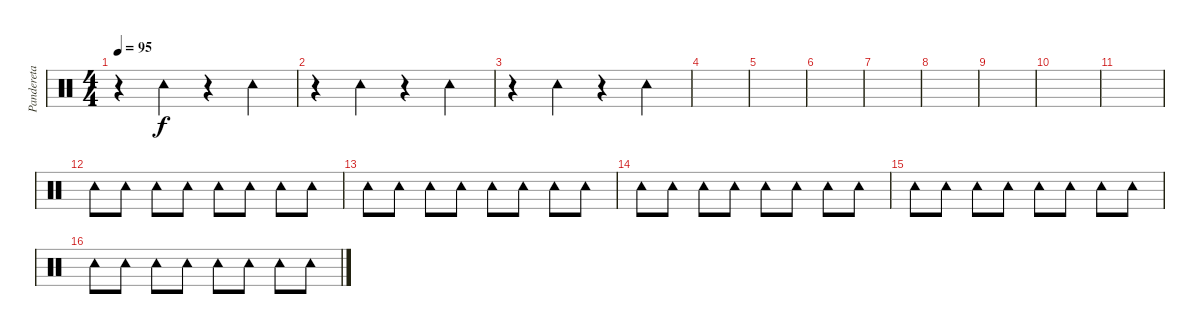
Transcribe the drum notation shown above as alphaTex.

\track ("Pandereta" "Pandereta") {instrument percussion}
\staff {score}
\articulation defaults
\ts (4 4)
\tempo 95
\clef neutral
\ks c
r.4{dy f} "Tambourine (hit)".4 r.4 "Tambourine (hit)".4 |
r.4 "Tambourine (hit)".4 r.4 "Tambourine (hit)".4 |
r.4 "Tambourine (hit)".4 r.4 "Tambourine (hit)".4 |
|
|
|
|
|
|
|
|
"Tambourine (hit)".8 "Tambourine (hit)".8 "Tambourine (hit)".8 "Tambourine (hit)".8 "Tambourine (hit)".8 "Tambourine (hit)".8 "Tambourine (hit)".8 "Tambourine (hit)".8 |
"Tambourine (hit)".8 "Tambourine (hit)".8 "Tambourine (hit)".8 "Tambourine (hit)".8 "Tambourine (hit)".8 "Tambourine (hit)".8 "Tambourine (hit)".8 "Tambourine (hit)".8 |
"Tambourine (hit)".8 "Tambourine (hit)".8 "Tambourine (hit)".8 "Tambourine (hit)".8 "Tambourine (hit)".8 "Tambourine (hit)".8 "Tambourine (hit)".8 "Tambourine (hit)".8 |
"Tambourine (hit)".8 "Tambourine (hit)".8 "Tambourine (hit)".8 "Tambourine (hit)".8 "Tambourine (hit)".8 "Tambourine (hit)".8 "Tambourine (hit)".8 "Tambourine (hit)".8 |
"Tambourine (hit)".8 "Tambourine (hit)".8 "Tambourine (hit)".8 "Tambourine (hit)".8 "Tambourine (hit)".8 "Tambourine (hit)".8 "Tambourine (hit)".8 "Tambourine (hit)".8
